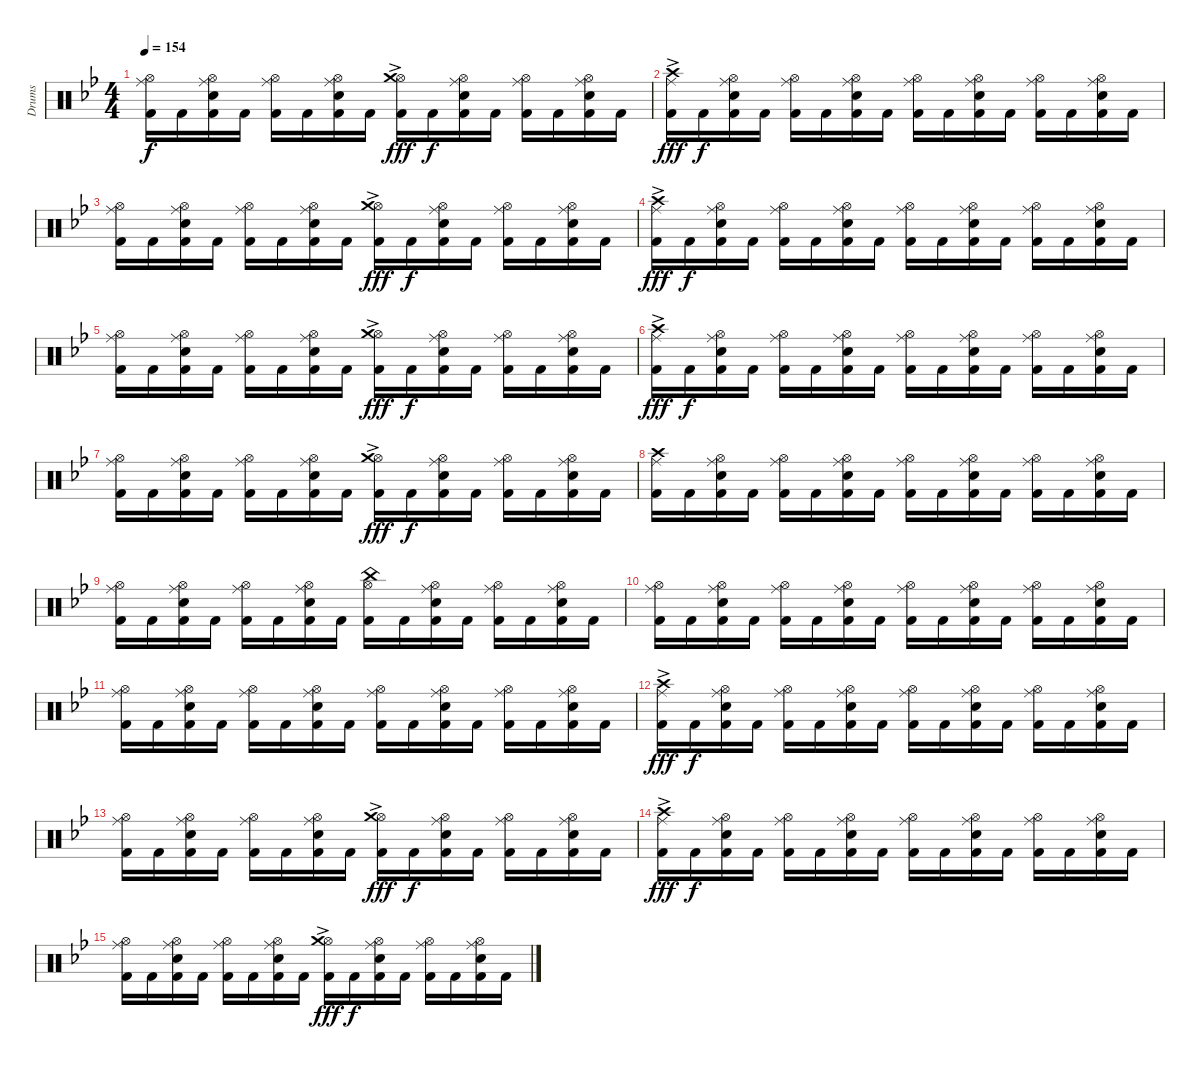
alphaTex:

\track ("Drums" "Drums") {instrument percussion}
\staff {score}
\articulation defaults
\ts (4 4)
\tempo 154
\clef neutral
\ks gminor
("Hi-Hat (open)" "Ride (middle)" "Kick (hit) 2").16{dy f} "Kick (hit) 2".16 ("Hi-Hat (open)" "Ride (middle)" "Electric Snare (hit)" "Kick (hit) 2").16 "Kick (hit) 2".16 ("Hi-Hat (open)" "Ride (middle)" "Kick (hit) 2").16 "Kick (hit) 2".16 ("Hi-Hat (open)" "Ride (middle)" "Electric Snare (hit)" "Kick (hit) 2").16 "Kick (hit) 2".16 ("Hi-Hat (open)" "Crash medium (hit)"{ac} "Kick (hit) 2").16{dy fff} "Kick (hit) 2".16{dy f} ("Hi-Hat (open)" "Ride (middle)" "Electric Snare (hit)" "Kick (hit) 2").16 "Kick (hit) 2".16 ("Hi-Hat (open)" "Ride (middle)" "Kick (hit) 2").16 "Kick (hit) 2".16 ("Hi-Hat (open)" "Ride (middle)" "Electric Snare (hit)" "Kick (hit) 2").16 "Kick (hit) 2".16 |
("Crash high (hit)"{ac} "Ride (middle)" "Kick (hit) 2").16{dy fff} "Kick (hit) 2".16{dy f} ("Hi-Hat (open)" "Ride (middle)" "Electric Snare (hit)" "Kick (hit) 2").16 "Kick (hit) 2".16 ("Hi-Hat (open)" "Ride (middle)" "Kick (hit) 2").16 "Kick (hit) 2".16 ("Hi-Hat (open)" "Ride (middle)" "Electric Snare (hit)" "Kick (hit) 2").16 "Kick (hit) 2".16 ("Hi-Hat (open)" "Ride (middle)" "Kick (hit) 2").16 "Kick (hit) 2".16 ("Hi-Hat (open)" "Ride (middle)" "Electric Snare (hit)" "Kick (hit) 2").16 "Kick (hit) 2".16 ("Hi-Hat (open)" "Ride (middle)" "Kick (hit) 2").16 "Kick (hit) 2".16 ("Hi-Hat (open)" "Ride (middle)" "Electric Snare (hit)" "Kick (hit) 2").16 "Kick (hit) 2".16 |
("Hi-Hat (open)" "Ride (middle)" "Kick (hit) 2").16 "Kick (hit) 2".16 ("Hi-Hat (open)" "Ride (middle)" "Electric Snare (hit)" "Kick (hit) 2").16 "Kick (hit) 2".16 ("Hi-Hat (open)" "Ride (middle)" "Kick (hit) 2").16 "Kick (hit) 2".16 ("Hi-Hat (open)" "Ride (middle)" "Electric Snare (hit)" "Kick (hit) 2").16 "Kick (hit) 2".16 ("Hi-Hat (open)" "Crash medium (hit)"{ac} "Kick (hit) 2").16{dy fff} "Kick (hit) 2".16{dy f} ("Hi-Hat (open)" "Ride (middle)" "Electric Snare (hit)" "Kick (hit) 2").16 "Kick (hit) 2".16 ("Hi-Hat (open)" "Ride (middle)" "Kick (hit) 2").16 "Kick (hit) 2".16 ("Hi-Hat (open)" "Ride (middle)" "Electric Snare (hit)" "Kick (hit) 2").16 "Kick (hit) 2".16 |
("Crash high (hit)"{ac} "Ride (middle)" "Kick (hit) 2").16{dy fff} "Kick (hit) 2".16{dy f} ("Hi-Hat (open)" "Ride (middle)" "Electric Snare (hit)" "Kick (hit) 2").16 "Kick (hit) 2".16 ("Hi-Hat (open)" "Ride (middle)" "Kick (hit) 2").16 "Kick (hit) 2".16 ("Hi-Hat (open)" "Ride (middle)" "Electric Snare (hit)" "Kick (hit) 2").16 "Kick (hit) 2".16 ("Hi-Hat (open)" "Ride (middle)" "Kick (hit) 2").16 "Kick (hit) 2".16 ("Hi-Hat (open)" "Ride (middle)" "Electric Snare (hit)" "Kick (hit) 2").16 "Kick (hit) 2".16 ("Hi-Hat (open)" "Ride (middle)" "Kick (hit) 2").16 "Kick (hit) 2".16 ("Hi-Hat (open)" "Ride (middle)" "Electric Snare (hit)" "Kick (hit) 2").16 "Kick (hit) 2".16 |
("Hi-Hat (open)" "Ride (middle)" "Kick (hit) 2").16 "Kick (hit) 2".16 ("Hi-Hat (open)" "Ride (middle)" "Electric Snare (hit)" "Kick (hit) 2").16 "Kick (hit) 2".16 ("Hi-Hat (open)" "Ride (middle)" "Kick (hit) 2").16 "Kick (hit) 2".16 ("Hi-Hat (open)" "Ride (middle)" "Electric Snare (hit)" "Kick (hit) 2").16 "Kick (hit) 2".16 ("Hi-Hat (open)" "Crash medium (hit)"{ac} "Kick (hit) 2").16{dy fff} "Kick (hit) 2".16{dy f} ("Hi-Hat (open)" "Ride (middle)" "Electric Snare (hit)" "Kick (hit) 2").16 "Kick (hit) 2".16 ("Hi-Hat (open)" "Ride (middle)" "Kick (hit) 2").16 "Kick (hit) 2".16 ("Hi-Hat (open)" "Ride (middle)" "Electric Snare (hit)" "Kick (hit) 2").16 "Kick (hit) 2".16 |
("Crash high (hit)"{ac} "Ride (middle)" "Kick (hit) 2").16{dy fff} "Kick (hit) 2".16{dy f} ("Hi-Hat (open)" "Ride (middle)" "Electric Snare (hit)" "Kick (hit) 2").16 "Kick (hit) 2".16 ("Hi-Hat (open)" "Ride (middle)" "Kick (hit) 2").16 "Kick (hit) 2".16 ("Hi-Hat (open)" "Ride (middle)" "Electric Snare (hit)" "Kick (hit) 2").16 "Kick (hit) 2".16 ("Hi-Hat (open)" "Ride (middle)" "Kick (hit) 2").16 "Kick (hit) 2".16 ("Hi-Hat (open)" "Ride (middle)" "Electric Snare (hit)" "Kick (hit) 2").16 "Kick (hit) 2".16 ("Hi-Hat (open)" "Ride (middle)" "Kick (hit) 2").16 "Kick (hit) 2".16 ("Hi-Hat (open)" "Ride (middle)" "Electric Snare (hit)" "Kick (hit) 2").16 "Kick (hit) 2".16 |
("Hi-Hat (open)" "Ride (middle)" "Kick (hit) 2").16 "Kick (hit) 2".16 ("Hi-Hat (open)" "Ride (middle)" "Electric Snare (hit)" "Kick (hit) 2").16 "Kick (hit) 2".16 ("Hi-Hat (open)" "Ride (middle)" "Kick (hit) 2").16 "Kick (hit) 2".16 ("Hi-Hat (open)" "Ride (middle)" "Electric Snare (hit)" "Kick (hit) 2").16 "Kick (hit) 2".16 ("Hi-Hat (open)" "Crash medium (hit)"{ac} "Kick (hit) 2").16{dy fff} "Kick (hit) 2".16{dy f} ("Hi-Hat (open)" "Ride (middle)" "Electric Snare (hit)" "Kick (hit) 2").16 "Kick (hit) 2".16 ("Hi-Hat (open)" "Ride (middle)" "Kick (hit) 2").16 "Kick (hit) 2".16 ("Hi-Hat (open)" "Ride (middle)" "Electric Snare (hit)" "Kick (hit) 2").16 "Kick (hit) 2".16 |
("Crash high (hit)" "Ride (middle)" "Kick (hit) 2").16 "Kick (hit) 2".16 ("Hi-Hat (open)" "Ride (middle)" "Electric Snare (hit)" "Kick (hit) 2").16 "Kick (hit) 2".16 ("Hi-Hat (open)" "Ride (middle)" "Kick (hit) 2").16 "Kick (hit) 2".16 ("Hi-Hat (open)" "Ride (middle)" "Electric Snare (hit)" "Kick (hit) 2").16 "Kick (hit) 2".16 ("Hi-Hat (open)" "Ride (middle)" "Kick (hit) 2").16 "Kick (hit) 2".16 ("Hi-Hat (open)" "Ride (middle)" "Electric Snare (hit)" "Kick (hit) 2").16 "Kick (hit) 2".16 ("Hi-Hat (open)" "Ride (middle)" "Kick (hit) 2").16 "Kick (hit) 2".16 ("Hi-Hat (open)" "Ride (middle)" "Electric Snare (hit)" "Kick (hit) 2").16 "Kick (hit) 2".16 |
("Hi-Hat (open)" "Ride (middle)" "Kick (hit) 2").16 "Kick (hit) 2".16 ("Hi-Hat (open)" "Ride (middle)" "Electric Snare (hit)" "Kick (hit) 2").16 "Kick (hit) 2".16 ("Hi-Hat (open)" "Ride (middle)" "Kick (hit) 2").16 "Kick (hit) 2".16 ("Hi-Hat (open)" "Ride (middle)" "Electric Snare (hit)" "Kick (hit) 2").16 "Kick (hit) 2".16 ("Hi-Hat (open)" "China (hit)" "Kick (hit) 2").16 "Kick (hit) 2".16 ("Hi-Hat (open)" "Ride (middle)" "Electric Snare (hit)" "Kick (hit) 2").16 "Kick (hit) 2".16 ("Hi-Hat (open)" "Ride (middle)" "Kick (hit) 2").16 "Kick (hit) 2".16 ("Hi-Hat (open)" "Ride (middle)" "Electric Snare (hit)" "Kick (hit) 2").16 "Kick (hit) 2".16 |
("Hi-Hat (open)" "Ride (middle)" "Kick (hit) 2").16 "Kick (hit) 2".16 ("Hi-Hat (open)" "Ride (middle)" "Electric Snare (hit)" "Kick (hit) 2").16 "Kick (hit) 2".16 ("Hi-Hat (open)" "Ride (middle)" "Kick (hit) 2").16 "Kick (hit) 2".16 ("Hi-Hat (open)" "Ride (middle)" "Electric Snare (hit)" "Kick (hit) 2").16 "Kick (hit) 2".16 ("Hi-Hat (open)" "Ride (middle)" "Kick (hit) 2").16 "Kick (hit) 2".16 ("Hi-Hat (open)" "Ride (middle)" "Electric Snare (hit)" "Kick (hit) 2").16 "Kick (hit) 2".16 ("Hi-Hat (open)" "Ride (middle)" "Kick (hit) 2").16 "Kick (hit) 2".16 ("Hi-Hat (open)" "Ride (middle)" "Electric Snare (hit)" "Kick (hit) 2").16 "Kick (hit) 2".16 |
("Hi-Hat (open)" "Ride (middle)" "Kick (hit) 2").16 "Kick (hit) 2".16 ("Hi-Hat (open)" "Ride (middle)" "Electric Snare (hit)" "Kick (hit) 2").16 "Kick (hit) 2".16 ("Hi-Hat (open)" "Ride (middle)" "Kick (hit) 2").16 "Kick (hit) 2".16 ("Hi-Hat (open)" "Ride (middle)" "Electric Snare (hit)" "Kick (hit) 2").16 "Kick (hit) 2".16 ("Hi-Hat (open)" "Ride (middle)" "Kick (hit) 2").16 "Kick (hit) 2".16 ("Hi-Hat (open)" "Ride (middle)" "Electric Snare (hit)" "Kick (hit) 2").16 "Kick (hit) 2".16 ("Hi-Hat (open)" "Ride (middle)" "Kick (hit) 2").16 "Kick (hit) 2".16 ("Hi-Hat (open)" "Ride (middle)" "Electric Snare (hit)" "Kick (hit) 2").16 "Kick (hit) 2".16 |
("Crash high (hit)"{ac} "Ride (middle)" "Kick (hit) 2").16{dy fff} "Kick (hit) 2".16{dy f} ("Hi-Hat (open)" "Ride (middle)" "Electric Snare (hit)" "Kick (hit) 2").16 "Kick (hit) 2".16 ("Hi-Hat (open)" "Ride (middle)" "Kick (hit) 2").16 "Kick (hit) 2".16 ("Hi-Hat (open)" "Ride (middle)" "Electric Snare (hit)" "Kick (hit) 2").16 "Kick (hit) 2".16 ("Hi-Hat (open)" "Ride (middle)" "Kick (hit) 2").16 "Kick (hit) 2".16 ("Hi-Hat (open)" "Ride (middle)" "Electric Snare (hit)" "Kick (hit) 2").16 "Kick (hit) 2".16 ("Hi-Hat (open)" "Ride (middle)" "Kick (hit) 2").16 "Kick (hit) 2".16 ("Hi-Hat (open)" "Ride (middle)" "Electric Snare (hit)" "Kick (hit) 2").16 "Kick (hit) 2".16 |
("Hi-Hat (open)" "Ride (middle)" "Kick (hit) 2").16 "Kick (hit) 2".16 ("Hi-Hat (open)" "Ride (middle)" "Electric Snare (hit)" "Kick (hit) 2").16 "Kick (hit) 2".16 ("Hi-Hat (open)" "Ride (middle)" "Kick (hit) 2").16 "Kick (hit) 2".16 ("Hi-Hat (open)" "Ride (middle)" "Electric Snare (hit)" "Kick (hit) 2").16 "Kick (hit) 2".16 ("Hi-Hat (open)" "Crash medium (hit)"{ac} "Kick (hit) 2").16{dy fff} "Kick (hit) 2".16{dy f} ("Hi-Hat (open)" "Ride (middle)" "Electric Snare (hit)" "Kick (hit) 2").16 "Kick (hit) 2".16 ("Hi-Hat (open)" "Ride (middle)" "Kick (hit) 2").16 "Kick (hit) 2".16 ("Hi-Hat (open)" "Ride (middle)" "Electric Snare (hit)" "Kick (hit) 2").16 "Kick (hit) 2".16 |
("Crash high (hit)"{ac} "Ride (middle)" "Kick (hit) 2").16{dy fff} "Kick (hit) 2".16{dy f} ("Hi-Hat (open)" "Ride (middle)" "Electric Snare (hit)" "Kick (hit) 2").16 "Kick (hit) 2".16 ("Hi-Hat (open)" "Ride (middle)" "Kick (hit) 2").16 "Kick (hit) 2".16 ("Hi-Hat (open)" "Ride (middle)" "Electric Snare (hit)" "Kick (hit) 2").16 "Kick (hit) 2".16 ("Hi-Hat (open)" "Ride (middle)" "Kick (hit) 2").16 "Kick (hit) 2".16 ("Hi-Hat (open)" "Ride (middle)" "Electric Snare (hit)" "Kick (hit) 2").16 "Kick (hit) 2".16 ("Hi-Hat (open)" "Ride (middle)" "Kick (hit) 2").16 "Kick (hit) 2".16 ("Hi-Hat (open)" "Ride (middle)" "Electric Snare (hit)" "Kick (hit) 2").16 "Kick (hit) 2".16 |
("Hi-Hat (open)" "Ride (middle)" "Kick (hit) 2").16 "Kick (hit) 2".16 ("Hi-Hat (open)" "Ride (middle)" "Electric Snare (hit)" "Kick (hit) 2").16 "Kick (hit) 2".16 ("Hi-Hat (open)" "Ride (middle)" "Kick (hit) 2").16 "Kick (hit) 2".16 ("Hi-Hat (open)" "Ride (middle)" "Electric Snare (hit)" "Kick (hit) 2").16 "Kick (hit) 2".16 ("Hi-Hat (open)" "Crash medium (hit)"{ac} "Kick (hit) 2").16{dy fff} "Kick (hit) 2".16{dy f} ("Hi-Hat (open)" "Ride (middle)" "Electric Snare (hit)" "Kick (hit) 2").16 "Kick (hit) 2".16 ("Hi-Hat (open)" "Ride (middle)" "Kick (hit) 2").16 "Kick (hit) 2".16 ("Hi-Hat (open)" "Ride (middle)" "Electric Snare (hit)" "Kick (hit) 2").16 "Kick (hit) 2".16
